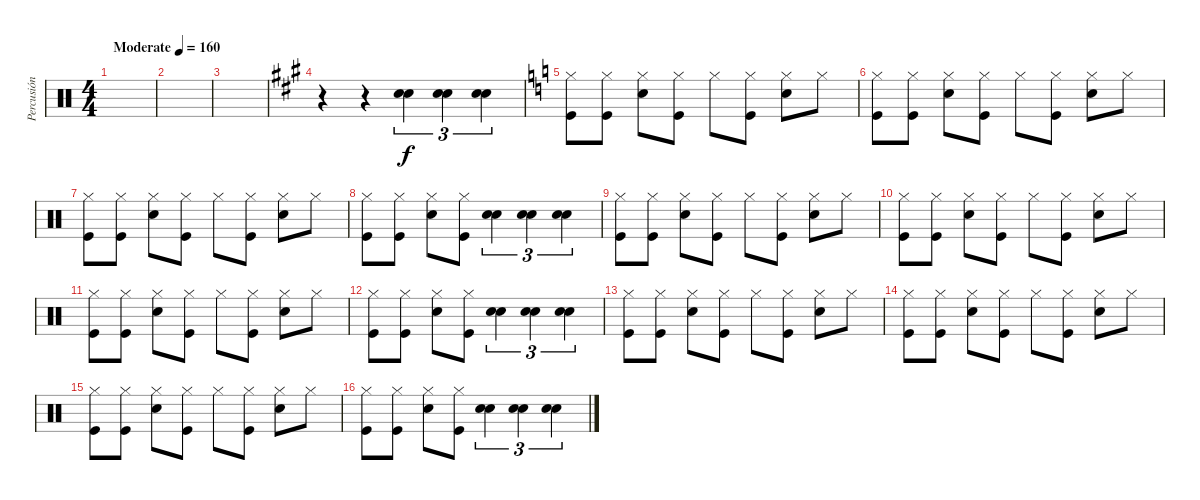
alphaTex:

\track ("Percusión" "Percusión") {instrument percussion}
\staff {score}
\articulation defaults
\ts (4 4)
\tempo (160 "Moderate")
\clef neutral
\ks c
|
|
|
\ks a
r.4 r.4 ("Snare (hit) 2" "Snare (hit) 2").4{tu (3 2)} ("Snare (hit) 2" "Snare (hit) 2").4{tu (3 2)} ("Snare (hit) 2" "Snare (hit) 2").4{tu (3 2)} |
\ks c
("Hi-Hat (closed)" "Kick (hit)").8 ("Hi-Hat (closed)" "Kick (hit)").8 ("Hi-Hat (closed)" "Snare (hit) 2").8 ("Hi-Hat (closed)" "Kick (hit)").8 "Hi-Hat (closed)".8 ("Hi-Hat (closed)" "Kick (hit)").8 ("Hi-Hat (closed)" "Snare (hit) 2").8 "Hi-Hat (closed)".8 |
("Hi-Hat (closed)" "Kick (hit)").8 ("Hi-Hat (closed)" "Kick (hit)").8 ("Hi-Hat (closed)" "Snare (hit) 2").8 ("Hi-Hat (closed)" "Kick (hit)").8 "Hi-Hat (closed)".8 ("Hi-Hat (closed)" "Kick (hit)").8 ("Hi-Hat (closed)" "Snare (hit) 2").8 "Hi-Hat (closed)".8 |
("Hi-Hat (closed)" "Kick (hit)").8 ("Hi-Hat (closed)" "Kick (hit)").8 ("Hi-Hat (closed)" "Snare (hit) 2").8 ("Hi-Hat (closed)" "Kick (hit)").8 "Hi-Hat (closed)".8 ("Hi-Hat (closed)" "Kick (hit)").8 ("Hi-Hat (closed)" "Snare (hit) 2").8 "Hi-Hat (closed)".8 |
("Hi-Hat (closed)" "Kick (hit)").8 ("Hi-Hat (closed)" "Kick (hit)").8 ("Hi-Hat (closed)" "Snare (hit) 2").8 ("Hi-Hat (closed)" "Kick (hit)").8 ("Snare (hit) 2" "Snare (hit) 2").4{tu (3 2)} ("Snare (hit) 2" "Snare (hit) 2").4{tu (3 2)} ("Snare (hit) 2" "Snare (hit) 2").4{tu (3 2)} |
("Hi-Hat (closed)" "Kick (hit)").8 ("Hi-Hat (closed)" "Kick (hit)").8 ("Hi-Hat (closed)" "Snare (hit) 2").8 ("Hi-Hat (closed)" "Kick (hit)").8 "Hi-Hat (closed)".8 ("Hi-Hat (closed)" "Kick (hit)").8 ("Hi-Hat (closed)" "Snare (hit) 2").8 "Hi-Hat (closed)".8 |
("Hi-Hat (closed)" "Kick (hit)").8 ("Hi-Hat (closed)" "Kick (hit)").8 ("Hi-Hat (closed)" "Snare (hit) 2").8 ("Hi-Hat (closed)" "Kick (hit)").8 "Hi-Hat (closed)".8 ("Hi-Hat (closed)" "Kick (hit)").8 ("Hi-Hat (closed)" "Snare (hit) 2").8 "Hi-Hat (closed)".8 |
("Hi-Hat (closed)" "Kick (hit)").8 ("Hi-Hat (closed)" "Kick (hit)").8 ("Hi-Hat (closed)" "Snare (hit) 2").8 ("Hi-Hat (closed)" "Kick (hit)").8 "Hi-Hat (closed)".8 ("Hi-Hat (closed)" "Kick (hit)").8 ("Hi-Hat (closed)" "Snare (hit) 2").8 "Hi-Hat (closed)".8 |
("Hi-Hat (closed)" "Kick (hit)").8 ("Hi-Hat (closed)" "Kick (hit)").8 ("Hi-Hat (closed)" "Snare (hit) 2").8 ("Hi-Hat (closed)" "Kick (hit)").8 ("Snare (hit) 2" "Snare (hit) 2").4{tu (3 2)} ("Snare (hit) 2" "Snare (hit) 2").4{tu (3 2)} ("Snare (hit) 2" "Snare (hit) 2").4{tu (3 2)} |
("Hi-Hat (closed)" "Kick (hit)").8 ("Hi-Hat (closed)" "Kick (hit)").8 ("Hi-Hat (closed)" "Snare (hit) 2").8 ("Hi-Hat (closed)" "Kick (hit)").8 "Hi-Hat (closed)".8 ("Hi-Hat (closed)" "Kick (hit)").8 ("Hi-Hat (closed)" "Snare (hit) 2").8 "Hi-Hat (closed)".8 |
("Hi-Hat (closed)" "Kick (hit)").8 ("Hi-Hat (closed)" "Kick (hit)").8 ("Hi-Hat (closed)" "Snare (hit) 2").8 ("Hi-Hat (closed)" "Kick (hit)").8 "Hi-Hat (closed)".8 ("Hi-Hat (closed)" "Kick (hit)").8 ("Hi-Hat (closed)" "Snare (hit) 2").8 "Hi-Hat (closed)".8 |
("Hi-Hat (closed)" "Kick (hit)").8 ("Hi-Hat (closed)" "Kick (hit)").8 ("Hi-Hat (closed)" "Snare (hit) 2").8 ("Hi-Hat (closed)" "Kick (hit)").8 "Hi-Hat (closed)".8 ("Hi-Hat (closed)" "Kick (hit)").8 ("Hi-Hat (closed)" "Snare (hit) 2").8 "Hi-Hat (closed)".8 |
("Hi-Hat (closed)" "Kick (hit)").8 ("Hi-Hat (closed)" "Kick (hit)").8 ("Hi-Hat (closed)" "Snare (hit) 2").8 ("Hi-Hat (closed)" "Kick (hit)").8 ("Snare (hit) 2" "Snare (hit) 2").4{tu (3 2)} ("Snare (hit) 2" "Snare (hit) 2").4{tu (3 2)} ("Snare (hit) 2" "Snare (hit) 2").4{tu (3 2)}
